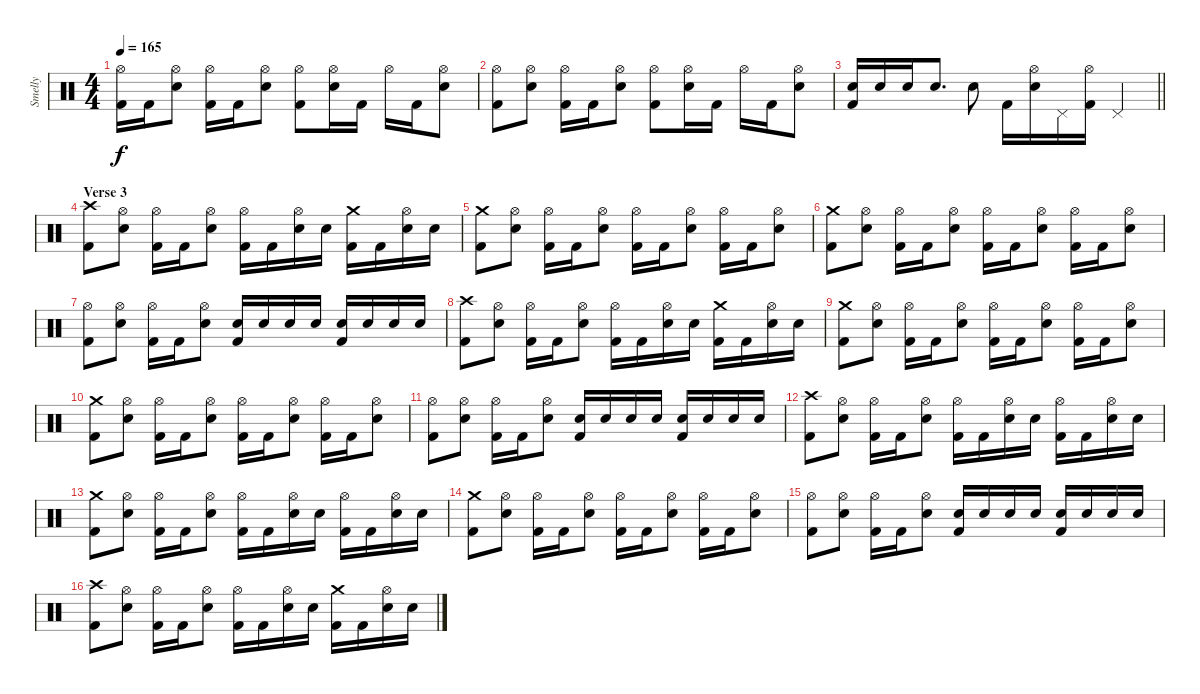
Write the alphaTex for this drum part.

\track ("Smelly" "Smelly") {instrument percussion}
\staff {score}
\articulation defaults
\ts (4 4)
\tempo 165
\clef neutral
\ks c
("Hi-Hat (open)" "Kick (hit) 2").16{dy f} "Kick (hit) 2".16 ("Hi-Hat (open)" "Electric Snare (hit)").8 ("Hi-Hat (open)" "Kick (hit) 2").16 "Kick (hit) 2".16 ("Hi-Hat (open)" "Electric Snare (hit)").8 ("Hi-Hat (open)" "Kick (hit) 2").8 ("Hi-Hat (open)" "Electric Snare (hit)").16 "Kick (hit) 2".16 "Hi-Hat (open)".16 "Kick (hit) 2".16 ("Hi-Hat (open)" "Electric Snare (hit)").8 |
("Hi-Hat (open)" "Kick (hit) 2").8 ("Hi-Hat (open)" "Electric Snare (hit)").8 ("Hi-Hat (open)" "Kick (hit) 2").16 "Kick (hit) 2".16 ("Hi-Hat (open)" "Electric Snare (hit)").8 ("Hi-Hat (open)" "Kick (hit) 2").8 ("Hi-Hat (open)" "Electric Snare (hit)").16 "Kick (hit) 2".16 "Hi-Hat (open)".16 "Kick (hit) 2".16 ("Hi-Hat (open)" "Electric Snare (hit)").8 |
\barLineRight lightlight
("Electric Snare (hit)" "Kick (hit) 2").16 "Electric Snare (hit)".16 "Electric Snare (hit)".16 "Electric Snare (hit)".8{d} "Electric Snare (hit)".8 "Kick (hit) 2".16 ("Hi-Hat (open)" "Electric Snare (hit)").16 "Pedal Hi-Hat (hit)".16 ("Hi-Hat (open)" "Kick (hit) 2").16 "Pedal Hi-Hat (hit)".4 |
\section ("" "Verse 3")
("Crash high (hit)" "Kick (hit) 2").8 ("Hi-Hat (open)" "Electric Snare (hit)").8 ("Hi-Hat (open)" "Kick (hit) 2").16 "Kick (hit) 2".16 ("Hi-Hat (open)" "Electric Snare (hit)").8 ("Hi-Hat (open)" "Kick (hit) 2").16 "Kick (hit) 2".16 ("Hi-Hat (open)" "Electric Snare (hit)").16 "Electric Snare (hit)".16 ("Crash medium (hit)" "Kick (hit) 2").16 "Kick (hit) 2".16 ("Hi-Hat (open)" "Electric Snare (hit)").16 "Electric Snare (hit)".16 |
("Crash medium (hit)" "Kick (hit) 2").8 ("Hi-Hat (open)" "Electric Snare (hit)").8 ("Hi-Hat (open)" "Kick (hit) 2").16 "Kick (hit) 2".16 ("Hi-Hat (open)" "Electric Snare (hit)").8 ("Hi-Hat (open)" "Kick (hit) 2").16 "Kick (hit) 2".16 ("Hi-Hat (open)" "Electric Snare (hit)").8 ("Hi-Hat (open)" "Kick (hit) 2").16 "Kick (hit) 2".16 ("Hi-Hat (open)" "Electric Snare (hit)").8 |
("Crash medium (hit)" "Kick (hit) 2").8 ("Hi-Hat (open)" "Electric Snare (hit)").8 ("Hi-Hat (open)" "Kick (hit) 2").16 "Kick (hit) 2".16 ("Hi-Hat (open)" "Electric Snare (hit)").8 ("Hi-Hat (open)" "Kick (hit) 2").16 "Kick (hit) 2".16 ("Hi-Hat (open)" "Electric Snare (hit)").8 ("Hi-Hat (open)" "Kick (hit) 2").16 "Kick (hit) 2".16 ("Hi-Hat (open)" "Electric Snare (hit)").8 |
("Hi-Hat (open)" "Kick (hit) 2").8 ("Hi-Hat (open)" "Electric Snare (hit)").8 ("Hi-Hat (open)" "Kick (hit) 2").16 "Kick (hit) 2".16 ("Hi-Hat (open)" "Electric Snare (hit)").8 ("Electric Snare (hit)" "Kick (hit) 2").16 "Electric Snare (hit)".16 "Electric Snare (hit)".16 "Electric Snare (hit)".16 ("Electric Snare (hit)" "Kick (hit) 2").16 "Electric Snare (hit)".16 "Electric Snare (hit)".16 "Electric Snare (hit)".16 |
("Crash high (hit)" "Kick (hit) 2").8 ("Hi-Hat (open)" "Electric Snare (hit)").8 ("Hi-Hat (open)" "Kick (hit) 2").16 "Kick (hit) 2".16 ("Hi-Hat (open)" "Electric Snare (hit)").8 ("Hi-Hat (open)" "Kick (hit) 2").16 "Kick (hit) 2".16 ("Hi-Hat (open)" "Electric Snare (hit)").16 "Electric Snare (hit)".16 ("Crash medium (hit)" "Kick (hit) 2").16 "Kick (hit) 2".16 ("Hi-Hat (open)" "Electric Snare (hit)").16 "Electric Snare (hit)".16 |
("Crash medium (hit)" "Kick (hit) 2").8 ("Hi-Hat (open)" "Electric Snare (hit)").8 ("Hi-Hat (open)" "Kick (hit) 2").16 "Kick (hit) 2".16 ("Hi-Hat (open)" "Electric Snare (hit)").8 ("Hi-Hat (open)" "Kick (hit) 2").16 "Kick (hit) 2".16 ("Hi-Hat (open)" "Electric Snare (hit)").8 ("Hi-Hat (open)" "Kick (hit) 2").16 "Kick (hit) 2".16 ("Hi-Hat (open)" "Electric Snare (hit)").8 |
("Crash medium (hit)" "Kick (hit) 2").8 ("Hi-Hat (open)" "Electric Snare (hit)").8 ("Hi-Hat (open)" "Kick (hit) 2").16 "Kick (hit) 2".16 ("Hi-Hat (open)" "Electric Snare (hit)").8 ("Hi-Hat (open)" "Kick (hit) 2").16 "Kick (hit) 2".16 ("Hi-Hat (open)" "Electric Snare (hit)").8 ("Hi-Hat (open)" "Kick (hit) 2").16 "Kick (hit) 2".16 ("Hi-Hat (open)" "Electric Snare (hit)").8 |
("Hi-Hat (open)" "Kick (hit) 2").8 ("Hi-Hat (open)" "Electric Snare (hit)").8 ("Hi-Hat (open)" "Kick (hit) 2").16 "Kick (hit) 2".16 ("Hi-Hat (open)" "Electric Snare (hit)").8 ("Electric Snare (hit)" "Kick (hit) 2").16 "Electric Snare (hit)".16 "Electric Snare (hit)".16 "Electric Snare (hit)".16 ("Electric Snare (hit)" "Kick (hit) 2").16 "Electric Snare (hit)".16 "Electric Snare (hit)".16 "Electric Snare (hit)".16 |
("Crash high (hit)" "Kick (hit) 2").8 ("Hi-Hat (open)" "Electric Snare (hit)").8 ("Hi-Hat (open)" "Kick (hit) 2").16 "Kick (hit) 2".16 ("Hi-Hat (open)" "Electric Snare (hit)").8 ("Hi-Hat (open)" "Kick (hit) 2").16 "Kick (hit) 2".16 ("Hi-Hat (open)" "Electric Snare (hit)").16 "Electric Snare (hit)".16 ("Hi-Hat (open)" "Kick (hit) 2").16 "Kick (hit) 2".16 ("Hi-Hat (open)" "Electric Snare (hit)").16 "Electric Snare (hit)".16 |
("Crash medium (hit)" "Kick (hit) 2").8 ("Hi-Hat (open)" "Electric Snare (hit)").8 ("Hi-Hat (open)" "Kick (hit) 2").16 "Kick (hit) 2".16 ("Hi-Hat (open)" "Electric Snare (hit)").8 ("Hi-Hat (open)" "Kick (hit) 2").16 "Kick (hit) 2".16 ("Hi-Hat (open)" "Electric Snare (hit)").16 "Electric Snare (hit)".16 ("Hi-Hat (open)" "Kick (hit) 2").16 "Kick (hit) 2".16 ("Hi-Hat (open)" "Electric Snare (hit)").16 "Electric Snare (hit)".16 |
("Crash medium (hit)" "Kick (hit) 2").8 ("Hi-Hat (open)" "Electric Snare (hit)").8 ("Hi-Hat (open)" "Kick (hit) 2").16 "Kick (hit) 2".16 ("Hi-Hat (open)" "Electric Snare (hit)").8 ("Hi-Hat (open)" "Kick (hit) 2").16 "Kick (hit) 2".16 ("Hi-Hat (open)" "Electric Snare (hit)").8 ("Hi-Hat (open)" "Kick (hit) 2").16 "Kick (hit) 2".16 ("Hi-Hat (open)" "Electric Snare (hit)").8 |
("Hi-Hat (open)" "Kick (hit) 2").8 ("Hi-Hat (open)" "Electric Snare (hit)").8 ("Hi-Hat (open)" "Kick (hit) 2").16 "Kick (hit) 2".16 ("Hi-Hat (open)" "Electric Snare (hit)").8 ("Electric Snare (hit)" "Kick (hit) 2").16 "Electric Snare (hit)".16 "Electric Snare (hit)".16 "Electric Snare (hit)".16 ("Electric Snare (hit)" "Kick (hit) 2").16 "Electric Snare (hit)".16 "Electric Snare (hit)".16 "Electric Snare (hit)".16 |
("Crash high (hit)" "Kick (hit) 2").8 ("Hi-Hat (open)" "Electric Snare (hit)").8 ("Hi-Hat (open)" "Kick (hit) 2").16 "Kick (hit) 2".16 ("Hi-Hat (open)" "Electric Snare (hit)").8 ("Hi-Hat (open)" "Kick (hit) 2").16 "Kick (hit) 2".16 ("Hi-Hat (open)" "Electric Snare (hit)").16 "Electric Snare (hit)".16 ("Crash medium (hit)" "Kick (hit) 2").16 "Kick (hit) 2".16 ("Hi-Hat (open)" "Electric Snare (hit)").16 "Electric Snare (hit)".16
